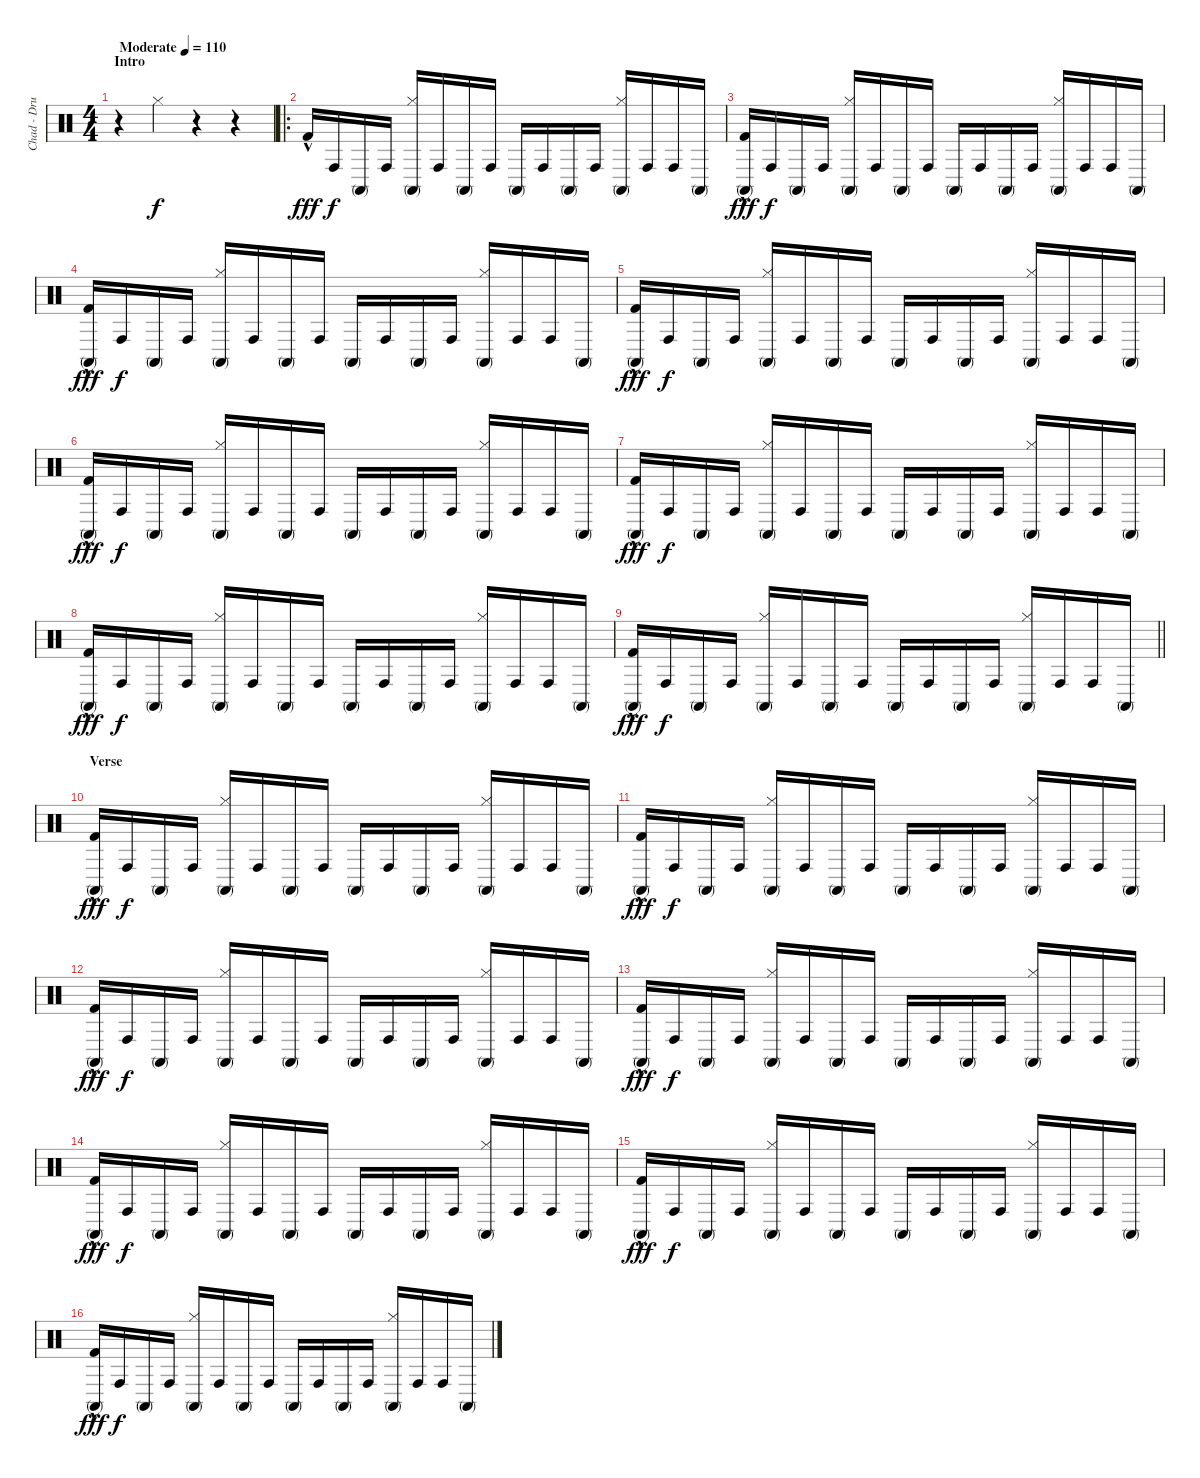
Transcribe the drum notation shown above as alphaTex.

\track ("Chad - Drums" "Chad - Dru") {instrument percussion}
\staff {score}
\articulation defaults
\ts (4 4)
\section ("" "Intro")
\tempo (110 "Moderate")
\clef neutral
\ks c
r.4{dy f} "Hi-Hat (closed)".4 r.4 r.4 |
\ro "Kick (hit) 2"{hac}.16{dy fff} "Conga high (hit)".16{dy f} "Conga high (mute)".16 "Conga high (hit)".16
("Conga high (mute)" "Hi-Hat (closed)").16 "Conga high (hit)".16 "Conga high (mute)".16 "Conga high (hit)".16 "Conga high (mute)".16 "Conga high (hit)".16 "Conga high (mute)".16 "Conga high (hit)".16 ("Conga high (mute)" "Hi-Hat (closed)").16 "Conga high (hit)".16 "Conga high (hit)".16 "Conga high (mute)".16 |
("Conga high (mute)" "Kick (hit) 2"{hac}).16{dy fff} "Conga high (hit)".16{dy f} "Conga high (mute)".16 "Conga high (hit)".16 ("Conga high (mute)" "Hi-Hat (closed)").16 "Conga high (hit)".16 "Conga high (mute)".16 "Conga high (hit)".16 "Conga high (mute)".16 "Conga high (hit)".16 "Conga high (mute)".16 "Conga high (hit)".16 ("Conga high (mute)" "Hi-Hat (closed)").16 "Conga high (hit)".16 "Conga high (hit)".16 "Conga high (mute)".16 |
("Conga high (mute)" "Kick (hit) 2"{hac}).16{dy fff} "Conga high (hit)".16{dy f} "Conga high (mute)".16 "Conga high (hit)".16 ("Conga high (mute)" "Hi-Hat (closed)").16 "Conga high (hit)".16 "Conga high (mute)".16 "Conga high (hit)".16 "Conga high (mute)".16 "Conga high (hit)".16 "Conga high (mute)".16 "Conga high (hit)".16 ("Conga high (mute)" "Hi-Hat (closed)").16 "Conga high (hit)".16 "Conga high (hit)".16 "Conga high (mute)".16 |
("Conga high (mute)" "Kick (hit) 2"{hac}).16{dy fff} "Conga high (hit)".16{dy f} "Conga high (mute)".16 "Conga high (hit)".16 ("Conga high (mute)" "Hi-Hat (closed)").16 "Conga high (hit)".16 "Conga high (mute)".16 "Conga high (hit)".16 "Conga high (mute)".16 "Conga high (hit)".16 "Conga high (mute)".16 "Conga high (hit)".16 ("Conga high (mute)" "Hi-Hat (closed)").16 "Conga high (hit)".16 "Conga high (hit)".16 "Conga high (mute)".16 |
("Conga high (mute)" "Kick (hit) 2"{hac}).16{dy fff} "Conga high (hit)".16{dy f} "Conga high (mute)".16 "Conga high (hit)".16 ("Conga high (mute)" "Hi-Hat (closed)").16 "Conga high (hit)".16 "Conga high (mute)".16 "Conga high (hit)".16 "Conga high (mute)".16 "Conga high (hit)".16 "Conga high (mute)".16 "Conga high (hit)".16 ("Conga high (mute)" "Hi-Hat (closed)").16 "Conga high (hit)".16 "Conga high (hit)".16 "Conga high (mute)".16 |
("Conga high (mute)" "Kick (hit) 2"{hac}).16{dy fff} "Conga high (hit)".16{dy f} "Conga high (mute)".16 "Conga high (hit)".16 ("Conga high (mute)" "Hi-Hat (closed)").16 "Conga high (hit)".16 "Conga high (mute)".16 "Conga high (hit)".16 "Conga high (mute)".16 "Conga high (hit)".16 "Conga high (mute)".16 "Conga high (hit)".16 ("Conga high (mute)" "Hi-Hat (closed)").16 "Conga high (hit)".16 "Conga high (hit)".16 "Conga high (mute)".16 |
("Conga high (mute)" "Kick (hit) 2"{hac}).16{dy fff} "Conga high (hit)".16{dy f} "Conga high (mute)".16 "Conga high (hit)".16 ("Conga high (mute)" "Hi-Hat (closed)").16 "Conga high (hit)".16 "Conga high (mute)".16 "Conga high (hit)".16 "Conga high (mute)".16 "Conga high (hit)".16 "Conga high (mute)".16 "Conga high (hit)".16 ("Conga high (mute)" "Hi-Hat (closed)").16 "Conga high (hit)".16 "Conga high (hit)".16 "Conga high (mute)".16 |
\barLineRight lightlight
("Conga high (mute)" "Kick (hit) 2"{hac}).16{dy fff} "Conga high (hit)".16{dy f} "Conga high (mute)".16 "Conga high (hit)".16 ("Conga high (mute)" "Hi-Hat (closed)").16 "Conga high (hit)".16 "Conga high (mute)".16 "Conga high (hit)".16 "Conga high (mute)".16 "Conga high (hit)".16 "Conga high (mute)".16 "Conga high (hit)".16 ("Conga high (mute)" "Hi-Hat (closed)").16 "Conga high (hit)".16 "Conga high (hit)".16 "Conga high (mute)".16 |
\section ("" "Verse")
("Conga high (mute)" "Kick (hit) 2"{hac}).16{dy fff} "Conga high (hit)".16{dy f} "Conga high (mute)".16 "Conga high (hit)".16 ("Conga high (mute)" "Hi-Hat (closed)").16 "Conga high (hit)".16 "Conga high (mute)".16 "Conga high (hit)".16 "Conga high (mute)".16 "Conga high (hit)".16 "Conga high (mute)".16 "Conga high (hit)".16 ("Conga high (mute)" "Hi-Hat (closed)").16 "Conga high (hit)".16 "Conga high (hit)".16 "Conga high (mute)".16 |
("Conga high (mute)" "Kick (hit) 2"{hac}).16{dy fff} "Conga high (hit)".16{dy f} "Conga high (mute)".16 "Conga high (hit)".16 ("Conga high (mute)" "Hi-Hat (closed)").16 "Conga high (hit)".16 "Conga high (mute)".16 "Conga high (hit)".16 "Conga high (mute)".16 "Conga high (hit)".16 "Conga high (mute)".16 "Conga high (hit)".16 ("Conga high (mute)" "Hi-Hat (closed)").16 "Conga high (hit)".16 "Conga high (hit)".16 "Conga high (mute)".16 |
("Conga high (mute)" "Kick (hit) 2"{hac}).16{dy fff} "Conga high (hit)".16{dy f} "Conga high (mute)".16 "Conga high (hit)".16 ("Conga high (mute)" "Hi-Hat (closed)").16 "Conga high (hit)".16 "Conga high (mute)".16 "Conga high (hit)".16 "Conga high (mute)".16 "Conga high (hit)".16 "Conga high (mute)".16 "Conga high (hit)".16 ("Conga high (mute)" "Hi-Hat (closed)").16 "Conga high (hit)".16 "Conga high (hit)".16 "Conga high (mute)".16 |
("Conga high (mute)" "Kick (hit) 2"{hac}).16{dy fff} "Conga high (hit)".16{dy f} "Conga high (mute)".16 "Conga high (hit)".16 ("Conga high (mute)" "Hi-Hat (closed)").16 "Conga high (hit)".16 "Conga high (mute)".16 "Conga high (hit)".16 "Conga high (mute)".16 "Conga high (hit)".16 "Conga high (mute)".16 "Conga high (hit)".16 ("Conga high (mute)" "Hi-Hat (closed)").16 "Conga high (hit)".16 "Conga high (hit)".16 "Conga high (mute)".16 |
("Conga high (mute)" "Kick (hit) 2"{hac}).16{dy fff} "Conga high (hit)".16{dy f} "Conga high (mute)".16 "Conga high (hit)".16 ("Conga high (mute)" "Hi-Hat (closed)").16 "Conga high (hit)".16 "Conga high (mute)".16 "Conga high (hit)".16 "Conga high (mute)".16 "Conga high (hit)".16 "Conga high (mute)".16 "Conga high (hit)".16 ("Conga high (mute)" "Hi-Hat (closed)").16 "Conga high (hit)".16 "Conga high (hit)".16 "Conga high (mute)".16 |
("Conga high (mute)" "Kick (hit) 2"{hac}).16{dy fff} "Conga high (hit)".16{dy f} "Conga high (mute)".16 "Conga high (hit)".16 ("Conga high (mute)" "Hi-Hat (closed)").16 "Conga high (hit)".16 "Conga high (mute)".16 "Conga high (hit)".16 "Conga high (mute)".16 "Conga high (hit)".16 "Conga high (mute)".16 "Conga high (hit)".16 ("Conga high (mute)" "Hi-Hat (closed)").16 "Conga high (hit)".16 "Conga high (hit)".16 "Conga high (mute)".16 |
("Conga high (mute)" "Kick (hit) 2"{hac}).16{dy fff} "Conga high (hit)".16{dy f} "Conga high (mute)".16 "Conga high (hit)".16 ("Conga high (mute)" "Hi-Hat (closed)").16 "Conga high (hit)".16 "Conga high (mute)".16 "Conga high (hit)".16 "Conga high (mute)".16 "Conga high (hit)".16 "Conga high (mute)".16 "Conga high (hit)".16 ("Conga high (mute)" "Hi-Hat (closed)").16 "Conga high (hit)".16 "Conga high (hit)".16 "Conga high (mute)".16
